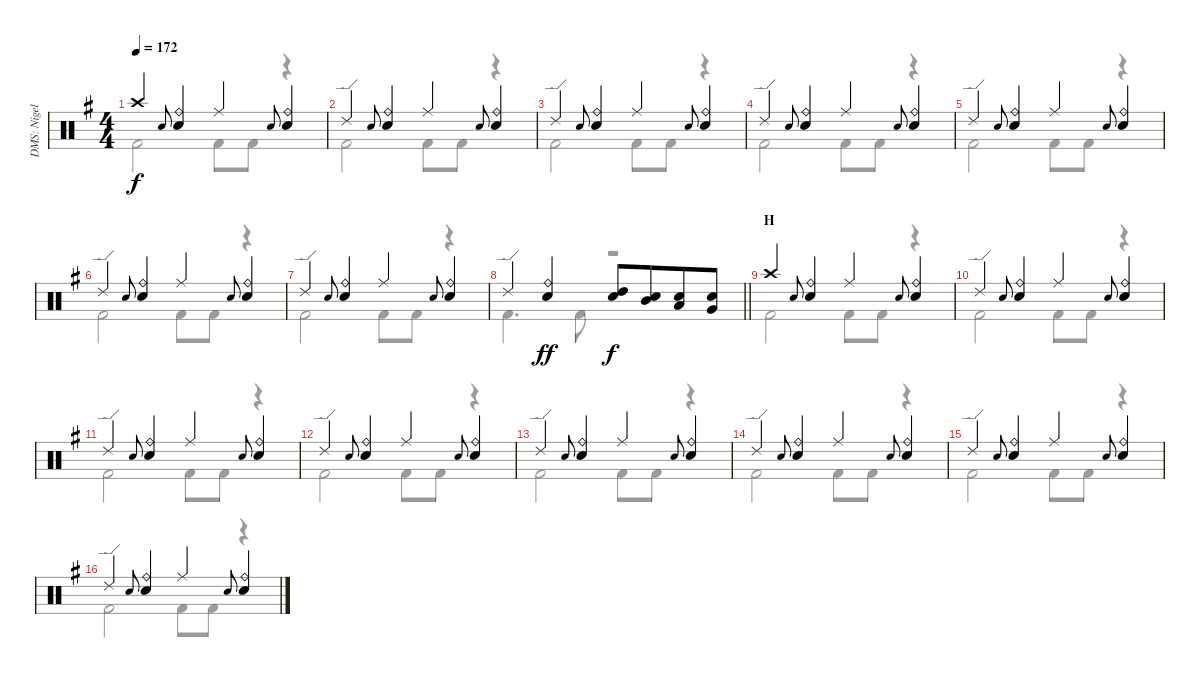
\track ("DMS: Nigel Olsson" "DMS: Nigel") {instrument percussion}
\staff {score}
\articulation defaults
\voice
\ts (4 4)
\tempo 172
\clef neutral
\ks g "Crash high (hit)".4{dy f} "Snare (hit) 2".8{gr onbeat}
("Ride (bell)" "Electric Snare (hit)").4 "Ride (middle)".4 "Snare (hit) 2".8{gr onbeat} ("Ride (bell)" "Electric Snare (hit)").4 |
"Ride (edge) 2".4 "Snare (hit) 2".8{gr onbeat} ("Ride (bell)" "Electric Snare (hit)").4 "Ride (middle)".4 "Snare (hit) 2".8{gr onbeat} ("Ride (bell)" "Electric Snare (hit)").4 |
"Ride (edge) 2".4 "Snare (hit) 2".8{gr onbeat} ("Ride (bell)" "Electric Snare (hit)").4 "Ride (middle)".4 "Snare (hit) 2".8{gr onbeat} ("Ride (bell)" "Electric Snare (hit)").4 |
"Ride (edge) 2".4 "Snare (hit) 2".8{gr onbeat} ("Ride (bell)" "Electric Snare (hit)").4 "Ride (middle)".4 "Snare (hit) 2".8{gr onbeat} ("Ride (bell)" "Electric Snare (hit)").4 |
"Ride (edge) 2".4 "Snare (hit) 2".8{gr onbeat} ("Ride (bell)" "Electric Snare (hit)").4 "Ride (middle)".4 "Snare (hit) 2".8{gr onbeat} ("Ride (bell)" "Electric Snare (hit)").4 |
"Ride (edge) 2".4 "Snare (hit) 2".8{gr onbeat} ("Ride (bell)" "Electric Snare (hit)").4 "Ride (middle)".4 "Snare (hit) 2".8{gr onbeat} ("Ride (bell)" "Electric Snare (hit)").4 |
"Ride (edge) 2".4 "Snare (hit) 2".8{gr onbeat} ("Ride (bell)" "Electric Snare (hit)").4 "Ride (middle)".4 "Snare (hit) 2".8{gr onbeat} ("Ride (bell)" "Electric Snare (hit)").4 |
\barLineRight lightlight "Ride (edge) 2".4
("Ride (bell)" "Electric Snare (hit)").4{dy ff} ("Electric Snare (hit)" "High Tom (hit)").8{dy f} ("Electric Snare (hit)" "Mid Tom (hit)").8{beam merge} ("Electric Snare (hit)" "Low Tom (hit)").8 ("Electric Snare (hit)" "Very Low Tom (hit)").8 |
\section ("" "H")
"Crash high (hit)".4 "Snare (hit) 2".8{gr onbeat} ("Ride (bell)" "Electric Snare (hit)").4 "Ride (middle)".4 "Snare (hit) 2".8{gr onbeat} ("Ride (bell)" "Electric Snare (hit)").4 |
"Ride (edge) 2".4 "Snare (hit) 2".8{gr onbeat} ("Ride (bell)" "Electric Snare (hit)").4 "Ride (middle)".4 "Snare (hit) 2".8{gr onbeat} ("Ride (bell)" "Electric Snare (hit)").4 |
"Ride (edge) 2".4 "Snare (hit) 2".8{gr onbeat} ("Ride (bell)" "Electric Snare (hit)").4 "Ride (middle)".4 "Snare (hit) 2".8{gr onbeat} ("Ride (bell)" "Electric Snare (hit)").4 |
"Ride (edge) 2".4 "Snare (hit) 2".8{gr onbeat} ("Ride (bell)" "Electric Snare (hit)").4 "Ride (middle)".4 "Snare (hit) 2".8{gr onbeat} ("Ride (bell)" "Electric Snare (hit)").4 |
"Ride (edge) 2".4 "Snare (hit) 2".8{gr onbeat} ("Ride (bell)" "Electric Snare (hit)").4 "Ride (middle)".4 "Snare (hit) 2".8{gr onbeat} ("Ride (bell)" "Electric Snare (hit)").4 |
"Ride (edge) 2".4 "Snare (hit) 2".8{gr onbeat} ("Ride (bell)" "Electric Snare (hit)").4 "Ride (middle)".4 "Snare (hit) 2".8{gr onbeat} ("Ride (bell)" "Electric Snare (hit)").4 |
"Ride (edge) 2".4 "Snare (hit) 2".8{gr onbeat} ("Ride (bell)" "Electric Snare (hit)").4 "Ride (middle)".4 "Snare (hit) 2".8{gr onbeat} ("Ride (bell)" "Electric Snare (hit)").4 |
"Ride (edge) 2".4 "Snare (hit) 2".8{gr onbeat} ("Ride (bell)" "Electric Snare (hit)").4 "Ride (middle)".4 "Snare (hit) 2".8{gr onbeat} ("Ride (bell)" "Electric Snare (hit)").4
\voice
\clef neutral
\ottava regular
\simile none
\ks g "Kick (hit) 2".2{dy f} "Kick (hit) 2".8 "Kick (hit) 2".8
r.4 |
"Kick (hit) 2".2 "Kick (hit) 2".8 "Kick (hit) 2".8 r.4 |
"Kick (hit) 2".2 "Kick (hit) 2".8 "Kick (hit) 2".8 r.4 |
"Kick (hit) 2".2 "Kick (hit) 2".8 "Kick (hit) 2".8 r.4 |
"Kick (hit) 2".2 "Kick (hit) 2".8 "Kick (hit) 2".8 r.4 |
"Kick (hit) 2".2 "Kick (hit) 2".8 "Kick (hit) 2".8 r.4 |
"Kick (hit) 2".2 "Kick (hit) 2".8 "Kick (hit) 2".8 r.4 |
\barLineRight lightlight "Kick (hit) 2".4{d} "Kick (hit) 2".8
r.2 |
"Kick (hit) 2".2 "Kick (hit) 2".8 "Kick (hit) 2".8 r.4 |
"Kick (hit) 2".2 "Kick (hit) 2".8 "Kick (hit) 2".8 r.4 |
"Kick (hit) 2".2 "Kick (hit) 2".8 "Kick (hit) 2".8 r.4 |
"Kick (hit) 2".2 "Kick (hit) 2".8 "Kick (hit) 2".8 r.4 |
"Kick (hit) 2".2 "Kick (hit) 2".8 "Kick (hit) 2".8 r.4 |
"Kick (hit) 2".2 "Kick (hit) 2".8 "Kick (hit) 2".8 r.4 |
"Kick (hit) 2".2 "Kick (hit) 2".8 "Kick (hit) 2".8 r.4 |
"Kick (hit) 2".2 "Kick (hit) 2".8 "Kick (hit) 2".8 r.4
